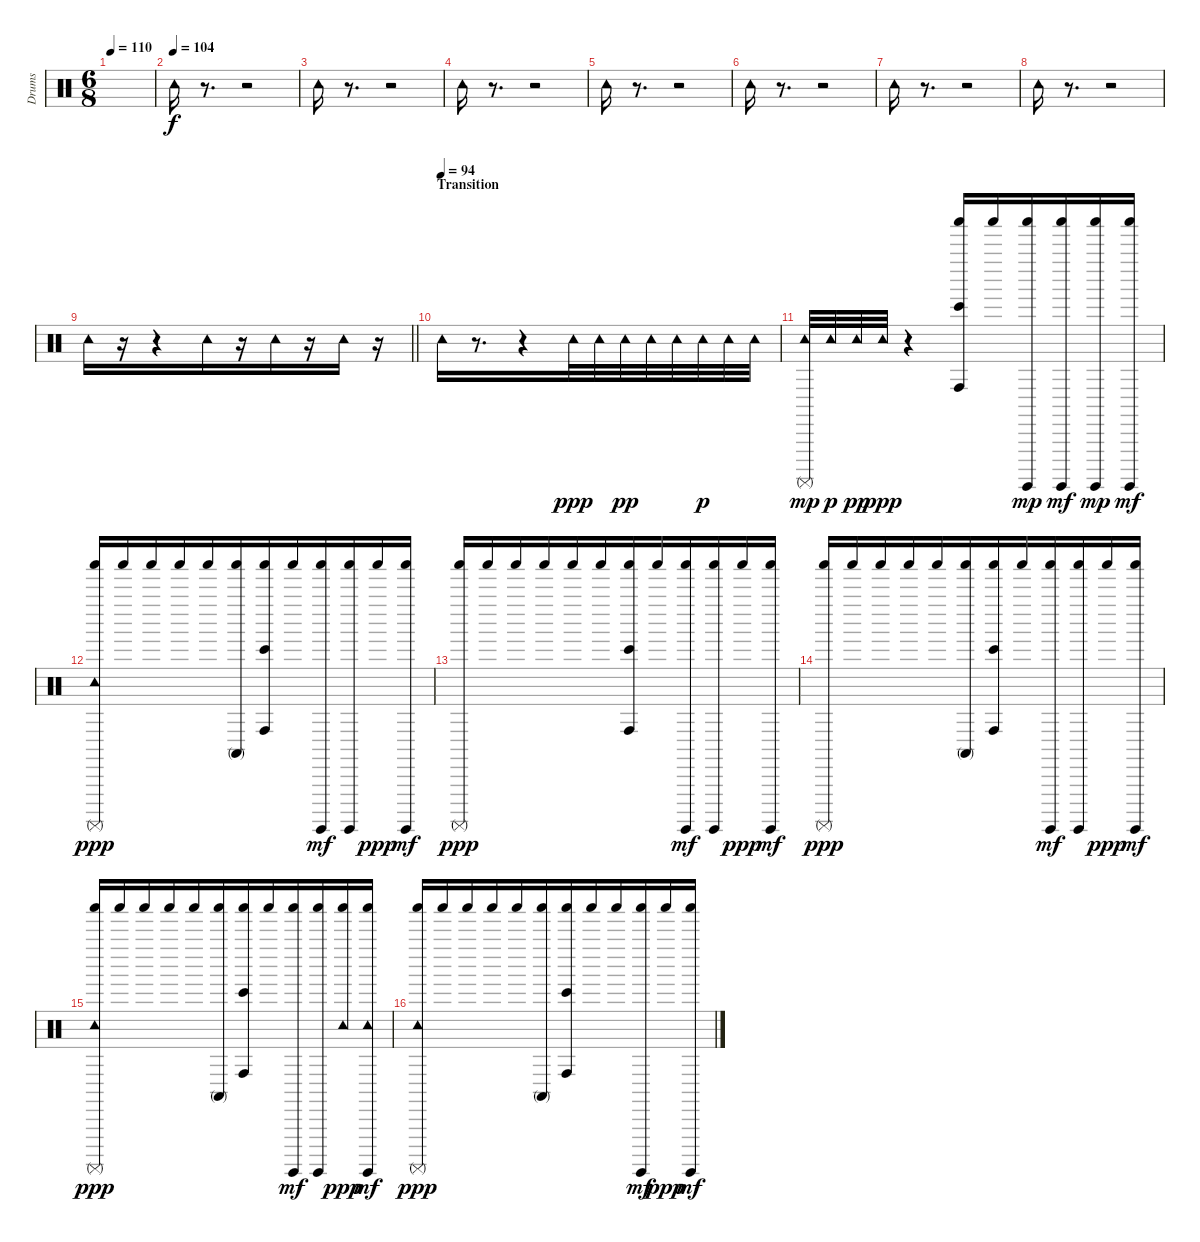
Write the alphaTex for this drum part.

\track ("Drums" "Drums") {instrument percussion}
\staff {score}
\articulation defaults
\ts (6 8)
\tempo 110
\clef neutral
\ks c
|
\tempo (104)
"Tambourine (hit)".16{beam merge} r.8{d} r.2 |
"Tambourine (hit)".16{beam merge} r.8{d} r.2 |
"Tambourine (hit)".16{beam merge} r.8{d} r.2 |
"Tambourine (hit)".16{beam merge} r.8{d} r.2 |
"Tambourine (hit)".16{beam merge} r.8{d} r.2 |
"Tambourine (hit)".16{beam merge} r.8{d} r.2 |
"Tambourine (hit)".16{beam merge} r.8{d} r.2 |
\barLineRight lightlight "Tambourine (hit)".16{beam merge}
r.16 r.4{beam merge} "Tambourine (hit)".16 r.16 "Tambourine (hit)".16 r.16{beam merge} "Tambourine (hit)".16 r.16 |
\section ("" "Transition")
\tempo (94)
"Tambourine (hit)".16{beam merge} r.8{d} r.4 "Tambourine (hit)".32{dy ppp beam merge} "Tambourine (hit)".32 "Tambourine (hit)".32{dy pp beam merge} "Tambourine (hit)".32 "Tambourine (hit)".32 "Tambourine (hit)".32{dy p} "Tambourine (hit)".32{beam merge} "Tambourine (hit)".32 |
("Tambourine (hit)" "Surdo (mute)").32{dy mp} "Tambourine (hit)".32{dy p} "Tambourine (hit)".32{dy pp beam merge} "Tambourine (hit)".32{dy ppp} r.4{beam merge} ("Shaker (hit)" "Conga high (hit)" "Bongo High (hit)").16{beam merge} "Shaker (hit)".16 ("Shaker (hit)" "Surdo (hit)").16{dy mp} ("Shaker (hit)" "Surdo (hit)").16{dy mf} ("Shaker (hit)" "Surdo (hit)").16{dy mp beam merge} ("Shaker (hit)" "Surdo (hit)").16{dy mf} |
("Tambourine (hit)" "Shaker (hit)" "Surdo (mute)").16{dy ppp beam merge} "Shaker (hit)".16 "Shaker (hit)".16 "Shaker (hit)".16 "Shaker (hit)".16 ("Shaker (hit)" "Conga high (mute)").16{beam merge} ("Shaker (hit)" "Conga high (hit)" "Bongo High (hit)").16{beam merge} "Shaker (hit)".16 ("Shaker (hit)" "Surdo (hit)").16{dy mf} ("Shaker (hit)" "Surdo (hit)").16 "Shaker (hit)".16{dy ppp beam merge} ("Shaker (hit)" "Surdo (hit)").16{dy mf} |
("Shaker (hit)" "Surdo (mute)").16{dy ppp beam merge} "Shaker (hit)".16 "Shaker (hit)".16 "Shaker (hit)".16 "Shaker (hit)".16 "Shaker (hit)".16{beam merge} ("Shaker (hit)" "Conga high (hit)" "Bongo High (hit)").16{beam merge} "Shaker (hit)".16 ("Shaker (hit)" "Surdo (hit)").16{dy mf} ("Shaker (hit)" "Surdo (hit)").16 "Shaker (hit)".16{dy ppp beam merge} ("Shaker (hit)" "Surdo (hit)").16{dy mf} |
("Shaker (hit)" "Surdo (mute)").16{dy ppp beam merge} "Shaker (hit)".16 "Shaker (hit)".16 "Shaker (hit)".16 "Shaker (hit)".16 ("Shaker (hit)" "Conga high (mute)").16{beam merge} ("Shaker (hit)" "Conga high (hit)" "Bongo High (hit)").16{beam merge} "Shaker (hit)".16 ("Shaker (hit)" "Surdo (hit)").16{dy mf} ("Shaker (hit)" "Surdo (hit)").16 "Shaker (hit)".16{dy ppp beam merge} ("Shaker (hit)" "Surdo (hit)").16{dy mf} |
("Tambourine (hit)" "Shaker (hit)" "Surdo (mute)").16{dy ppp beam merge} "Shaker (hit)".16 "Shaker (hit)".16 "Shaker (hit)".16 "Shaker (hit)".16 ("Shaker (hit)" "Conga high (mute)").16{beam merge} ("Shaker (hit)" "Conga high (hit)" "Bongo High (hit)").16{beam merge} "Shaker (hit)".16 ("Shaker (hit)" "Surdo (hit)").16{dy mf} ("Shaker (hit)" "Surdo (hit)").16 ("Tambourine (hit)" "Shaker (hit)").16{dy ppp beam merge} ("Tambourine (hit)" "Shaker (hit)" "Surdo (hit)").16{dy mf} |
("Tambourine (hit)" "Shaker (hit)" "Surdo (mute)").16{dy ppp beam merge} "Shaker (hit)".16 "Shaker (hit)".16 "Shaker (hit)".16 "Shaker (hit)".16 ("Shaker (hit)" "Conga high (mute)").16{beam merge} ("Shaker (hit)" "Conga high (hit)" "Bongo High (hit)").16{beam merge} "Shaker (hit)".16 "Shaker (hit)".16 ("Shaker (hit)" "Surdo (hit)").16{dy mf} "Shaker (hit)".16{dy ppp beam merge} ("Shaker (hit)" "Surdo (hit)").16{dy mf}
